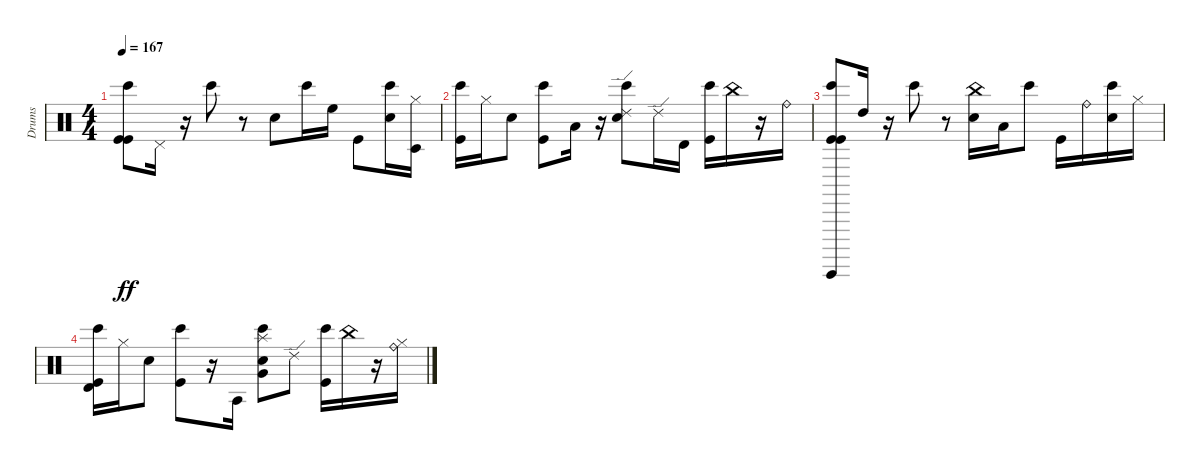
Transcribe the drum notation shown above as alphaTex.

\track ("Drums" "Drums") {instrument percussion}
\staff {score}
\articulation defaults
\ts (4 4)
\tempo 167
\clef neutral
\ks c
("Kick (hit)" "Kick (hit)" "Bongo High (hit)").8{dy ff} "Pedal Hi-Hat (hit)".16 r.16 "Bongo High (hit)".8 r.8 "Snare (hit) 2".8 "Bongo High (hit)".16 "High Floor Tom (hit)".16 "Kick (hit)".8 ("Snare (hit) 2" "Bongo High (hit)").16 ("Hi-Hat (closed)" "Timbale low (hit)").16 |
("Kick (hit)" "Bongo High (hit)").16 "Hi-Hat (closed)".16 "Snare (hit) 2".8 ("Kick (hit)" "Bongo High (hit)").8 "Low Tom (hit)".16 r.16 ("Snare (hit) 2" "Ride (edge) 2" "Bongo High (hit)").8 "Ride (edge) 2".16 "Timbale high (hit)".16 ("Kick (hit)" "Bongo High (hit)").16 "China (hit)".16 r.16 "Ride (bell)".16 |
("Kick (hit)" "Kick (hit)" "Bongo High (hit)" "Guiro (hit)").8 "High Tom (hit)".16 r.16 "Bongo High (hit)".8 r.8 ("Snare (hit) 2" "China (hit)").16 "Low Floor Tom (hit)".16 "Bongo High (hit)".8 "Kick (hit)".16 "Ride (bell)".16 ("Snare (hit) 2" "Bongo High (hit)").16 "Hi-Hat (closed)".16 |
("Kick (hit)" "Bongo High (hit)" "Timbale high (hit)").16 "Hi-Hat (closed)".16 "Snare (hit) 2".8 ("Kick (hit)" "Bongo High (hit)").8 r.16 "Agogo tow (hit)".16 ("Snare (hit) 2" "Very Low Tom (hit)" "Splash (hit)" "Bongo High (hit)").8 "Ride (edge) 2".8 ("Kick (hit)" "Bongo High (hit)").16 "China (hit)".16 r.16 ("Hi-Hat (closed)" "Ride (bell)").16
